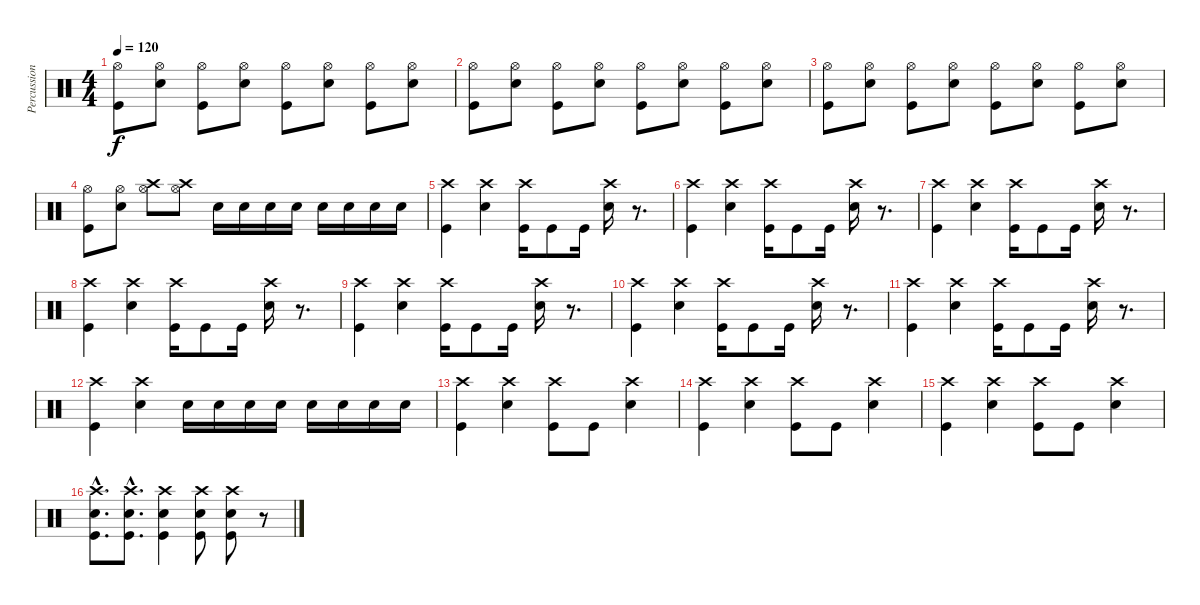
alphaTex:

\track ("Percussions" "Percussion") {instrument percussion}
\staff {score}
\articulation defaults
\ts (4 4)
\tempo 120
\clef neutral
\ks c
("Hi-Hat (open)" "Kick (hit)").8{dy f} ("Hi-Hat (open)" "Snare (hit) 2").8 ("Hi-Hat (open)" "Kick (hit)").8 ("Hi-Hat (open)" "Snare (hit) 2").8 ("Hi-Hat (open)" "Kick (hit)").8 ("Hi-Hat (open)" "Snare (hit) 2").8 ("Hi-Hat (open)" "Kick (hit)").8 ("Hi-Hat (open)" "Snare (hit) 2").8 |
("Hi-Hat (open)" "Kick (hit)").8 ("Hi-Hat (open)" "Snare (hit) 2").8 ("Hi-Hat (open)" "Kick (hit)").8 ("Hi-Hat (open)" "Snare (hit) 2").8 ("Hi-Hat (open)" "Kick (hit)").8 ("Hi-Hat (open)" "Snare (hit) 2").8 ("Hi-Hat (open)" "Kick (hit)").8 ("Hi-Hat (open)" "Snare (hit) 2").8 |
("Hi-Hat (open)" "Kick (hit)").8 ("Hi-Hat (open)" "Snare (hit) 2").8 ("Hi-Hat (open)" "Kick (hit)").8 ("Hi-Hat (open)" "Snare (hit) 2").8 ("Hi-Hat (open)" "Kick (hit)").8 ("Hi-Hat (open)" "Snare (hit) 2").8 ("Hi-Hat (open)" "Kick (hit)").8 ("Hi-Hat (open)" "Snare (hit) 2").8 |
("Hi-Hat (open)" "Kick (hit)").8 ("Hi-Hat (open)" "Snare (hit) 2").8 ("Hi-Hat (open)" "Crash high (hit)").8 ("Hi-Hat (open)" "Crash high (hit)").8 "Snare (hit) 2".16 "Snare (hit) 2".16 "Snare (hit) 2".16 "Snare (hit) 2".16 "Snare (hit) 2".16 "Snare (hit) 2".16 "Snare (hit) 2".16 "Snare (hit) 2".16 |
("Crash high (hit)" "Kick (hit)").4 ("Crash high (hit)" "Snare (hit) 2").4 ("Crash high (hit)" "Kick (hit)").16 "Kick (hit)".8 "Kick (hit)".16 ("Crash high (hit)" "Snare (hit) 2").16 r.8{d} |
("Crash high (hit)" "Kick (hit)").4 ("Crash high (hit)" "Snare (hit) 2").4 ("Crash high (hit)" "Kick (hit)").16 "Kick (hit)".8 "Kick (hit)".16 ("Crash high (hit)" "Snare (hit) 2").16 r.8{d} |
("Crash high (hit)" "Kick (hit)").4 ("Crash high (hit)" "Snare (hit) 2").4 ("Crash high (hit)" "Kick (hit)").16 "Kick (hit)".8 "Kick (hit)".16 ("Crash high (hit)" "Snare (hit) 2").16 r.8{d} |
("Crash high (hit)" "Kick (hit)").4 ("Crash high (hit)" "Snare (hit) 2").4 ("Crash high (hit)" "Kick (hit)").16 "Kick (hit)".8 "Kick (hit)".16 ("Crash high (hit)" "Snare (hit) 2").16 r.8{d} |
("Crash high (hit)" "Kick (hit)").4 ("Crash high (hit)" "Snare (hit) 2").4 ("Crash high (hit)" "Kick (hit)").16 "Kick (hit)".8 "Kick (hit)".16 ("Crash high (hit)" "Snare (hit) 2").16 r.8{d} |
("Crash high (hit)" "Kick (hit)").4 ("Crash high (hit)" "Snare (hit) 2").4 ("Crash high (hit)" "Kick (hit)").16 "Kick (hit)".8 "Kick (hit)".16 ("Crash high (hit)" "Snare (hit) 2").16 r.8{d} |
("Crash high (hit)" "Kick (hit)").4 ("Crash high (hit)" "Snare (hit) 2").4 ("Crash high (hit)" "Kick (hit)").16 "Kick (hit)".8 "Kick (hit)".16 ("Crash high (hit)" "Snare (hit) 2").16 r.8{d} |
("Crash high (hit)" "Kick (hit)").4 ("Crash high (hit)" "Snare (hit) 2").4 "Snare (hit) 2".16 "Snare (hit) 2".16 "Snare (hit) 2".16 "Snare (hit) 2".16 "Snare (hit) 2".16 "Snare (hit) 2".16 "Snare (hit) 2".16 "Snare (hit) 2".16 |
("Crash high (hit)" "Kick (hit)").4 ("Crash high (hit)" "Snare (hit) 2").4 ("Crash high (hit)" "Kick (hit)").8 "Kick (hit)".8 ("Crash high (hit)" "Snare (hit) 2").4 |
("Crash high (hit)" "Kick (hit)").4 ("Crash high (hit)" "Snare (hit) 2").4 ("Crash high (hit)" "Kick (hit)").8 "Kick (hit)".8 ("Crash high (hit)" "Snare (hit) 2").4 |
("Crash high (hit)" "Kick (hit)").4 ("Crash high (hit)" "Snare (hit) 2").4 ("Crash high (hit)" "Kick (hit)").8 "Kick (hit)".8 ("Crash high (hit)" "Snare (hit) 2").4 |
("Crash high (hit)"{hac} "Kick (hit)"{hac} "Snare (hit) 2"{hac}).8{d} ("Crash high (hit)"{hac} "Kick (hit)"{hac} "Snare (hit) 2"{hac}).8{d} ("Crash high (hit)" "Kick (hit)" "Snare (hit) 2").4 ("Crash high (hit)" "Kick (hit)" "Snare (hit) 2").8 ("Crash high (hit)" "Kick (hit)" "Snare (hit) 2").8 r.8
